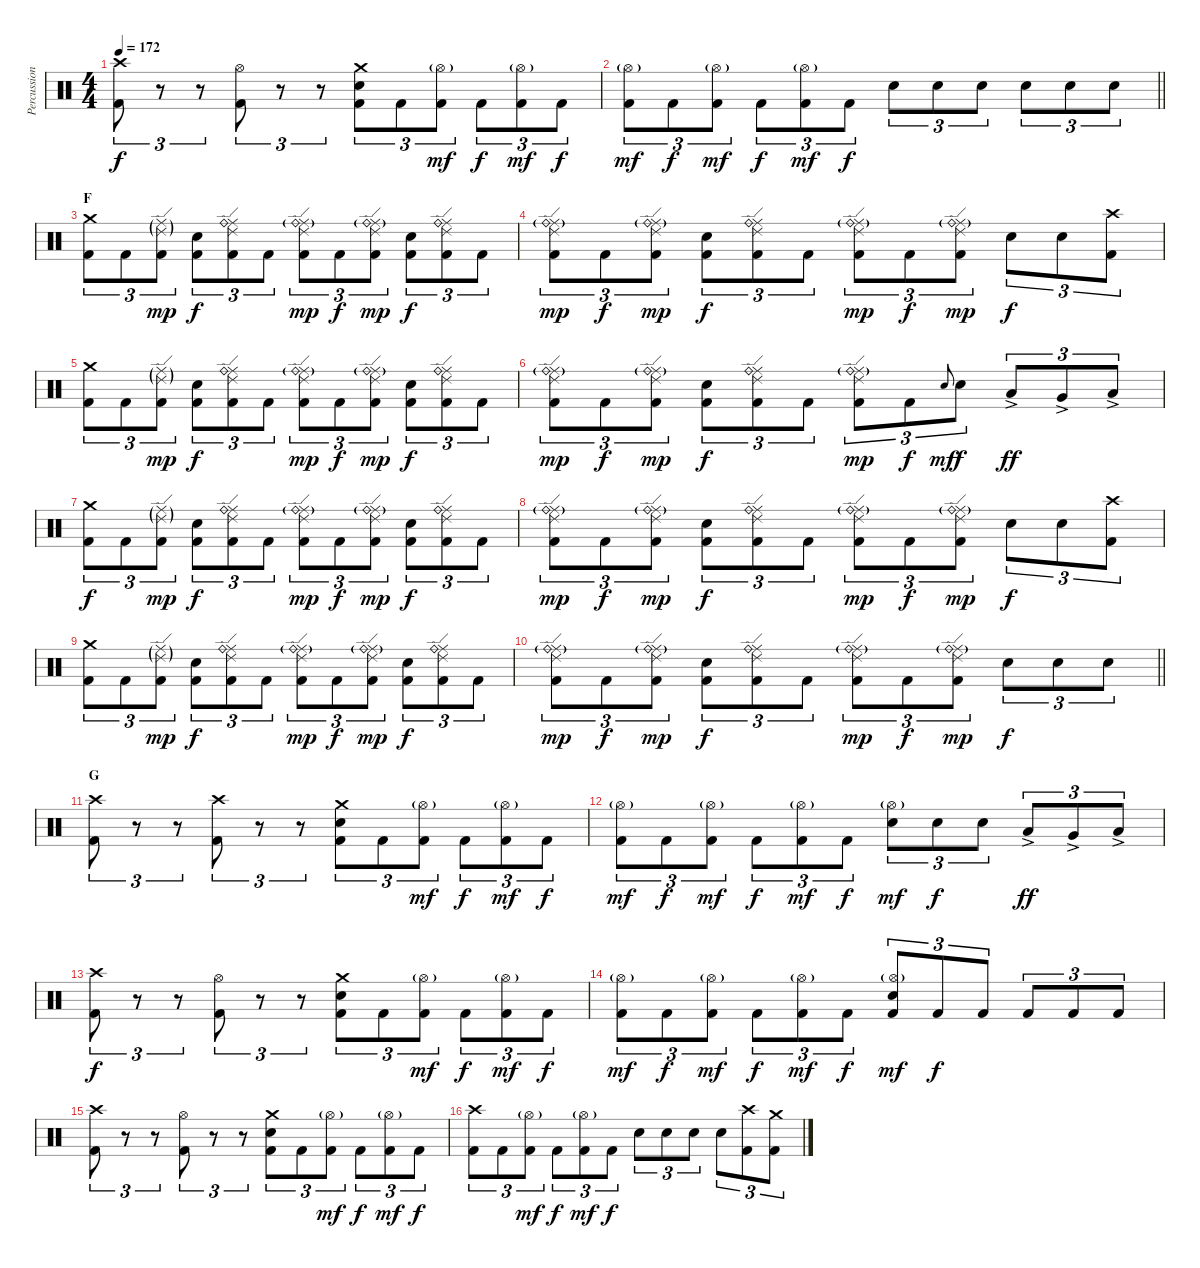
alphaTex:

\track ("Percussion" "Percussion") {instrument percussion}
\staff {score}
\articulation defaults
\ts (4 4)
\tempo 172
\clef neutral
\ks c
("Crash high (hit)" "Kick (hit) 2").8{tu (3 2) dy f} r.8{tu (3 2)} r.8{tu (3 2)} ("Hi-Hat (open)" "Kick (hit) 2").8{tu (3 2)} r.8{tu (3 2)} r.8{tu (3 2)} ("Crash medium (hit)" "Electric Snare (hit)" "Kick (hit) 2").8{tu (3 2)} "Kick (hit) 2".8{tu (3 2)} ("Hi-Hat (open)"{g} "Kick (hit) 2").8{tu (3 2) dy mf} "Kick (hit) 2".8{tu (3 2) dy f} ("Hi-Hat (open)"{g} "Kick (hit) 2").8{tu (3 2) dy mf} "Kick (hit) 2".8{tu (3 2) dy f} |
\barLineRight lightlight
("Hi-Hat (open)"{g} "Kick (hit) 2").8{tu (3 2) dy mf} "Kick (hit) 2".8{tu (3 2) dy f} ("Hi-Hat (open)"{g} "Kick (hit) 2").8{tu (3 2) dy mf} "Kick (hit) 2".8{tu (3 2) dy f} ("Hi-Hat (open)"{g} "Kick (hit) 2").8{tu (3 2) dy mf} "Kick (hit) 2".8{tu (3 2) dy f} "Electric Snare (hit)".8{tu (3 2)} "Electric Snare (hit)".8{tu (3 2)} "Electric Snare (hit)".8{tu (3 2)} "Electric Snare (hit)".8{tu (3 2)} "Electric Snare (hit)".8{tu (3 2)} "Electric Snare (hit)".8{tu (3 2)} |
\section ("" "F")
("Crash medium (hit)" "Kick (hit) 2").8{tu (3 2)} "Kick (hit) 2".8{tu (3 2)} ("Ride (edge) 2"{g} "Ride (middle)"{g} "Kick (hit) 2").8{tu (3 2) dy mp} ("Electric Snare (hit)" "Kick (hit) 2").8{tu (3 2) dy f} ("Ride (edge) 2" "Ride (middle)" "Ride (bell)" "Kick (hit) 2").8{tu (3 2)} "Kick (hit) 2".8{tu (3 2)} ("Ride (edge) 2" "Ride (middle)" "Ride (bell)"{g} "Kick (hit) 2").8{tu (3 2) dy mp} "Kick (hit) 2".8{tu (3 2) dy f} ("Ride (edge) 2" "Ride (middle)" "Ride (bell)"{g} "Kick (hit) 2").8{tu (3 2) dy mp} ("Electric Snare (hit)" "Kick (hit) 2").8{tu (3 2) dy f} ("Ride (edge) 2" "Ride (middle)" "Ride (bell)" "Kick (hit) 2").8{tu (3 2)} "Kick (hit) 2".8{tu (3 2)} |
("Ride (edge) 2" "Ride (middle)" "Ride (bell)"{g} "Kick (hit) 2").8{tu (3 2) dy mp} "Kick (hit) 2".8{tu (3 2) dy f} ("Ride (edge) 2" "Ride (middle)" "Ride (bell)"{g} "Kick (hit) 2").8{tu (3 2) dy mp} ("Electric Snare (hit)" "Kick (hit) 2").8{tu (3 2) dy f} ("Ride (edge) 2" "Ride (middle)" "Ride (bell)" "Kick (hit) 2").8{tu (3 2)} "Kick (hit) 2".8{tu (3 2)} ("Ride (edge) 2" "Ride (middle)" "Ride (bell)"{g} "Kick (hit) 2").8{tu (3 2) dy mp} "Kick (hit) 2".8{tu (3 2) dy f} ("Ride (edge) 2" "Ride (middle)" "Ride (bell)"{g} "Kick (hit) 2").8{tu (3 2) dy mp} "Electric Snare (hit)".8{tu (3 2) dy f} "Electric Snare (hit)".8{tu (3 2)} ("Crash high (hit)" "Kick (hit) 2").8{tu (3 2)} |
("Crash medium (hit)" "Kick (hit) 2").8{tu (3 2)} "Kick (hit) 2".8{tu (3 2)} ("Ride (edge) 2"{g} "Ride (middle)"{g} "Kick (hit) 2").8{tu (3 2) dy mp} ("Electric Snare (hit)" "Kick (hit) 2").8{tu (3 2) dy f} ("Ride (edge) 2" "Ride (middle)" "Ride (bell)" "Kick (hit) 2").8{tu (3 2)} "Kick (hit) 2".8{tu (3 2)} ("Ride (edge) 2" "Ride (middle)" "Ride (bell)"{g} "Kick (hit) 2").8{tu (3 2) dy mp} "Kick (hit) 2".8{tu (3 2) dy f} ("Ride (edge) 2" "Ride (middle)" "Ride (bell)"{g} "Kick (hit) 2").8{tu (3 2) dy mp} ("Electric Snare (hit)" "Kick (hit) 2").8{tu (3 2) dy f} ("Ride (edge) 2" "Ride (middle)" "Ride (bell)" "Kick (hit) 2").8{tu (3 2)} "Kick (hit) 2".8{tu (3 2)} |
("Ride (edge) 2" "Ride (middle)" "Ride (bell)"{g} "Kick (hit) 2").8{tu (3 2) dy mp} "Kick (hit) 2".8{tu (3 2) dy f} ("Ride (edge) 2" "Ride (middle)" "Ride (bell)"{g} "Kick (hit) 2").8{tu (3 2) dy mp} ("Electric Snare (hit)" "Kick (hit) 2").8{tu (3 2) dy f} ("Ride (edge) 2" "Ride (middle)" "Ride (bell)" "Kick (hit) 2").8{tu (3 2)} "Kick (hit) 2".8{tu (3 2)} ("Ride (edge) 2" "Ride (middle)" "Ride (bell)"{g} "Kick (hit) 2").8{tu (3 2) dy mp} "Kick (hit) 2".8{tu (3 2) dy f} "Electric Snare (hit)".8{gr onbeat dy mf} "Electric Snare (hit)".8{tu (3 2) dy f} "Low Tom (hit)"{ac}.8{tu (3 2) dy ff} "Very Low Tom (hit)"{ac}.8{tu (3 2)} "Low Floor Tom (hit)"{ac}.8{tu (3 2)} |
("Crash medium (hit)" "Kick (hit) 2").8{tu (3 2) dy f} "Kick (hit) 2".8{tu (3 2)} ("Ride (edge) 2"{g} "Ride (middle)"{g} "Kick (hit) 2").8{tu (3 2) dy mp} ("Electric Snare (hit)" "Kick (hit) 2").8{tu (3 2) dy f} ("Ride (edge) 2" "Ride (middle)" "Ride (bell)" "Kick (hit) 2").8{tu (3 2)} "Kick (hit) 2".8{tu (3 2)} ("Ride (edge) 2" "Ride (middle)" "Ride (bell)"{g} "Kick (hit) 2").8{tu (3 2) dy mp} "Kick (hit) 2".8{tu (3 2) dy f} ("Ride (edge) 2" "Ride (middle)" "Ride (bell)"{g} "Kick (hit) 2").8{tu (3 2) dy mp} ("Electric Snare (hit)" "Kick (hit) 2").8{tu (3 2) dy f} ("Ride (edge) 2" "Ride (middle)" "Ride (bell)" "Kick (hit) 2").8{tu (3 2)} "Kick (hit) 2".8{tu (3 2)} |
("Ride (edge) 2" "Ride (middle)" "Ride (bell)"{g} "Kick (hit) 2").8{tu (3 2) dy mp} "Kick (hit) 2".8{tu (3 2) dy f} ("Ride (edge) 2" "Ride (middle)" "Ride (bell)"{g} "Kick (hit) 2").8{tu (3 2) dy mp} ("Electric Snare (hit)" "Kick (hit) 2").8{tu (3 2) dy f} ("Ride (edge) 2" "Ride (middle)" "Ride (bell)" "Kick (hit) 2").8{tu (3 2)} "Kick (hit) 2".8{tu (3 2)} ("Ride (edge) 2" "Ride (middle)" "Ride (bell)"{g} "Kick (hit) 2").8{tu (3 2) dy mp} "Kick (hit) 2".8{tu (3 2) dy f} ("Ride (edge) 2" "Ride (middle)" "Ride (bell)"{g} "Kick (hit) 2").8{tu (3 2) dy mp} "Electric Snare (hit)".8{tu (3 2) dy f} "Electric Snare (hit)".8{tu (3 2)} ("Crash high (hit)" "Kick (hit) 2").8{tu (3 2)} |
("Crash medium (hit)" "Kick (hit) 2").8{tu (3 2)} "Kick (hit) 2".8{tu (3 2)} ("Ride (edge) 2"{g} "Ride (middle)"{g} "Kick (hit) 2").8{tu (3 2) dy mp} ("Electric Snare (hit)" "Kick (hit) 2").8{tu (3 2) dy f} ("Ride (edge) 2" "Ride (middle)" "Ride (bell)" "Kick (hit) 2").8{tu (3 2)} "Kick (hit) 2".8{tu (3 2)} ("Ride (edge) 2" "Ride (middle)" "Ride (bell)"{g} "Kick (hit) 2").8{tu (3 2) dy mp} "Kick (hit) 2".8{tu (3 2) dy f} ("Ride (edge) 2" "Ride (middle)" "Ride (bell)"{g} "Kick (hit) 2").8{tu (3 2) dy mp} ("Electric Snare (hit)" "Kick (hit) 2").8{tu (3 2) dy f} ("Ride (edge) 2" "Ride (middle)" "Ride (bell)" "Kick (hit) 2").8{tu (3 2)} "Kick (hit) 2".8{tu (3 2)} |
\barLineRight lightlight
("Ride (edge) 2" "Ride (middle)" "Ride (bell)"{g} "Kick (hit) 2").8{tu (3 2) dy mp} "Kick (hit) 2".8{tu (3 2) dy f} ("Ride (edge) 2" "Ride (middle)" "Ride (bell)"{g} "Kick (hit) 2").8{tu (3 2) dy mp} ("Electric Snare (hit)" "Kick (hit) 2").8{tu (3 2) dy f} ("Ride (edge) 2" "Ride (middle)" "Ride (bell)" "Kick (hit) 2").8{tu (3 2)} "Kick (hit) 2".8{tu (3 2)} ("Ride (edge) 2" "Ride (middle)" "Ride (bell)"{g} "Kick (hit) 2").8{tu (3 2) dy mp} "Kick (hit) 2".8{tu (3 2) dy f} ("Ride (edge) 2" "Ride (middle)" "Ride (bell)"{g} "Kick (hit) 2").8{tu (3 2) dy mp} "Electric Snare (hit)".8{tu (3 2) dy f} "Electric Snare (hit)".8{tu (3 2)} "Electric Snare (hit)".8{tu (3 2)} |
\section ("" "G")
("Crash high (hit)" "Kick (hit) 2").8{tu (3 2)} r.8{tu (3 2)} r.8{tu (3 2)} ("Crash high (hit)" "Kick (hit) 2").8{tu (3 2)} r.8{tu (3 2)} r.8{tu (3 2)} ("Crash medium (hit)" "Electric Snare (hit)" "Kick (hit) 2").8{tu (3 2)} "Kick (hit) 2".8{tu (3 2)} ("Hi-Hat (open)"{g} "Kick (hit) 2").8{tu (3 2) dy mf} "Kick (hit) 2".8{tu (3 2) dy f} ("Hi-Hat (open)"{g} "Kick (hit) 2").8{tu (3 2) dy mf} "Kick (hit) 2".8{tu (3 2) dy f} |
("Hi-Hat (open)"{g} "Kick (hit) 2").8{tu (3 2) dy mf} "Kick (hit) 2".8{tu (3 2) dy f} ("Hi-Hat (open)"{g} "Kick (hit) 2").8{tu (3 2) dy mf} "Kick (hit) 2".8{tu (3 2) dy f} ("Hi-Hat (open)"{g} "Kick (hit) 2").8{tu (3 2) dy mf} "Kick (hit) 2".8{tu (3 2) dy f} ("Hi-Hat (open)"{g} "Electric Snare (hit)").8{tu (3 2) dy mf} "Electric Snare (hit)".8{tu (3 2) dy f} "Electric Snare (hit)".8{tu (3 2)} "Low Tom (hit)"{ac}.8{tu (3 2) dy ff} "Very Low Tom (hit)"{ac}.8{tu (3 2)} "Low Floor Tom (hit)"{ac}.8{tu (3 2)} |
("Crash high (hit)" "Kick (hit) 2").8{tu (3 2) dy f} r.8{tu (3 2)} r.8{tu (3 2)} ("Hi-Hat (open)" "Kick (hit) 2").8{tu (3 2)} r.8{tu (3 2)} r.8{tu (3 2)} ("Crash medium (hit)" "Electric Snare (hit)" "Kick (hit) 2").8{tu (3 2)} "Kick (hit) 2".8{tu (3 2)} ("Hi-Hat (open)"{g} "Kick (hit) 2").8{tu (3 2) dy mf} "Kick (hit) 2".8{tu (3 2) dy f} ("Hi-Hat (open)"{g} "Kick (hit) 2").8{tu (3 2) dy mf} "Kick (hit) 2".8{tu (3 2) dy f} |
("Hi-Hat (open)"{g} "Kick (hit) 2").8{tu (3 2) dy mf} "Kick (hit) 2".8{tu (3 2) dy f} ("Hi-Hat (open)"{g} "Kick (hit) 2").8{tu (3 2) dy mf} "Kick (hit) 2".8{tu (3 2) dy f} ("Hi-Hat (open)"{g} "Kick (hit) 2").8{tu (3 2) dy mf} "Kick (hit) 2".8{tu (3 2) dy f} ("Hi-Hat (open)"{g} "Electric Snare (hit)" "Kick (hit) 2").8{tu (3 2) dy mf} "Kick (hit) 2".8{tu (3 2) dy f} "Kick (hit) 2".8{tu (3 2)} "Kick (hit) 2".8{tu (3 2)} "Kick (hit) 2".8{tu (3 2)} "Kick (hit) 2".8{tu (3 2)} |
("Crash high (hit)" "Kick (hit) 2").8{tu (3 2)} r.8{tu (3 2)} r.8{tu (3 2)} ("Hi-Hat (open)" "Kick (hit) 2").8{tu (3 2)} r.8{tu (3 2)} r.8{tu (3 2)} ("Crash medium (hit)" "Electric Snare (hit)" "Kick (hit) 2").8{tu (3 2)} "Kick (hit) 2".8{tu (3 2)} ("Hi-Hat (open)"{g} "Kick (hit) 2").8{tu (3 2) dy mf} "Kick (hit) 2".8{tu (3 2) dy f} ("Hi-Hat (open)"{g} "Kick (hit) 2").8{tu (3 2) dy mf} "Kick (hit) 2".8{tu (3 2) dy f} |
("Crash high (hit)" "Kick (hit) 2").8{tu (3 2)} "Kick (hit) 2".8{tu (3 2)} ("Hi-Hat (open)"{g} "Kick (hit) 2").8{tu (3 2) dy mf} "Kick (hit) 2".8{tu (3 2) dy f} ("Hi-Hat (open)"{g} "Kick (hit) 2").8{tu (3 2) dy mf} "Kick (hit) 2".8{tu (3 2) dy f} "Electric Snare (hit)".8{tu (3 2)} "Electric Snare (hit)".8{tu (3 2)} "Electric Snare (hit)".8{tu (3 2)} "Electric Snare (hit)".8{tu (3 2)} ("Crash high (hit)" "Kick (hit) 2").8{tu (3 2)} ("Crash medium (hit)" "Kick (hit) 2").8{tu (3 2)}
